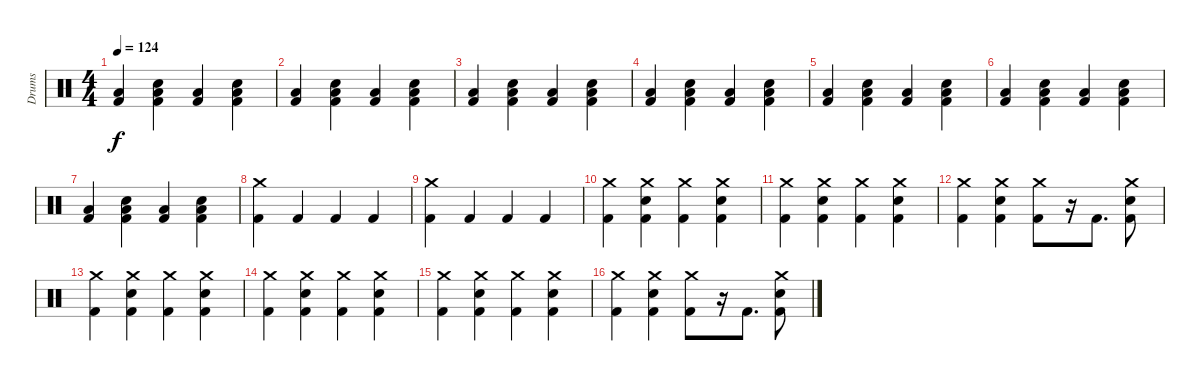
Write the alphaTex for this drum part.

\track ("Drums" "Drums") {instrument percussion}
\staff {score}
\articulation defaults
\ts (4 4)
\tempo 124
\clef neutral
\ks c
("Low Floor Tom (hit)" "Kick (hit) 2").4{dy f} ("Low Floor Tom (hit)" "Snare (hit) 2" "Kick (hit) 2").4 ("Low Floor Tom (hit)" "Kick (hit) 2").4 ("Low Floor Tom (hit)" "Snare (hit) 2" "Kick (hit) 2").4 |
("Low Floor Tom (hit)" "Kick (hit) 2").4 ("Low Floor Tom (hit)" "Snare (hit) 2" "Kick (hit) 2").4 ("Low Floor Tom (hit)" "Kick (hit) 2").4 ("Low Floor Tom (hit)" "Snare (hit) 2" "Kick (hit) 2").4 |
("Low Floor Tom (hit)" "Kick (hit) 2").4 ("Low Floor Tom (hit)" "Snare (hit) 2" "Kick (hit) 2").4 ("Low Floor Tom (hit)" "Kick (hit) 2").4 ("Low Floor Tom (hit)" "Snare (hit) 2" "Kick (hit) 2").4 |
("Low Floor Tom (hit)" "Kick (hit) 2").4 ("Low Floor Tom (hit)" "Snare (hit) 2" "Kick (hit) 2").4 ("Low Floor Tom (hit)" "Kick (hit) 2").4 ("Low Floor Tom (hit)" "Snare (hit) 2" "Kick (hit) 2").4 |
("Low Floor Tom (hit)" "Kick (hit) 2").4 ("Low Floor Tom (hit)" "Snare (hit) 2" "Kick (hit) 2").4 ("Low Floor Tom (hit)" "Kick (hit) 2").4 ("Low Floor Tom (hit)" "Snare (hit) 2" "Kick (hit) 2").4 |
("Low Floor Tom (hit)" "Kick (hit) 2").4 ("Low Floor Tom (hit)" "Snare (hit) 2" "Kick (hit) 2").4 ("Low Floor Tom (hit)" "Kick (hit) 2").4 ("Low Floor Tom (hit)" "Snare (hit) 2" "Kick (hit) 2").4 |
("Low Floor Tom (hit)" "Kick (hit) 2").4 ("Low Floor Tom (hit)" "Snare (hit) 2" "Kick (hit) 2").4 ("Low Floor Tom (hit)" "Kick (hit) 2").4 ("Low Floor Tom (hit)" "Snare (hit) 2" "Kick (hit) 2").4 |
("Crash medium (hit)" "Kick (hit) 2").4 "Kick (hit) 2".4 "Kick (hit) 2".4 "Kick (hit) 2".4 |
("Crash medium (hit)" "Kick (hit) 2").4 "Kick (hit) 2".4 "Kick (hit) 2".4 "Kick (hit) 2".4 |
("Crash medium (hit)" "Kick (hit) 2").4 ("Crash medium (hit)" "Snare (hit) 2" "Kick (hit) 2").4 ("Crash medium (hit)" "Kick (hit) 2").4 ("Crash medium (hit)" "Snare (hit) 2" "Kick (hit) 2").4 |
("Crash medium (hit)" "Kick (hit) 2").4 ("Crash medium (hit)" "Snare (hit) 2" "Kick (hit) 2").4 ("Crash medium (hit)" "Kick (hit) 2").4 ("Crash medium (hit)" "Snare (hit) 2" "Kick (hit) 2").4 |
("Crash medium (hit)" "Kick (hit) 2").4 ("Crash medium (hit)" "Snare (hit) 2" "Kick (hit) 2").4 ("Crash medium (hit)" "Kick (hit) 2").8 r.16 "Kick (hit) 2".8{d} ("Crash medium (hit)" "Snare (hit) 2" "Kick (hit) 2").8 |
("Crash medium (hit)" "Kick (hit) 2").4 ("Crash medium (hit)" "Snare (hit) 2" "Kick (hit) 2").4 ("Crash medium (hit)" "Kick (hit) 2").4 ("Crash medium (hit)" "Snare (hit) 2" "Kick (hit) 2").4 |
("Crash medium (hit)" "Kick (hit) 2").4 ("Crash medium (hit)" "Snare (hit) 2" "Kick (hit) 2").4 ("Crash medium (hit)" "Kick (hit) 2").4 ("Crash medium (hit)" "Snare (hit) 2" "Kick (hit) 2").4 |
("Crash medium (hit)" "Kick (hit) 2").4 ("Crash medium (hit)" "Snare (hit) 2" "Kick (hit) 2").4 ("Crash medium (hit)" "Kick (hit) 2").4 ("Crash medium (hit)" "Snare (hit) 2" "Kick (hit) 2").4 |
("Crash medium (hit)" "Kick (hit) 2").4 ("Crash medium (hit)" "Snare (hit) 2" "Kick (hit) 2").4 ("Crash medium (hit)" "Kick (hit) 2").8 r.16 "Kick (hit) 2".8{d} ("Crash medium (hit)" "Snare (hit) 2" "Kick (hit) 2").8
